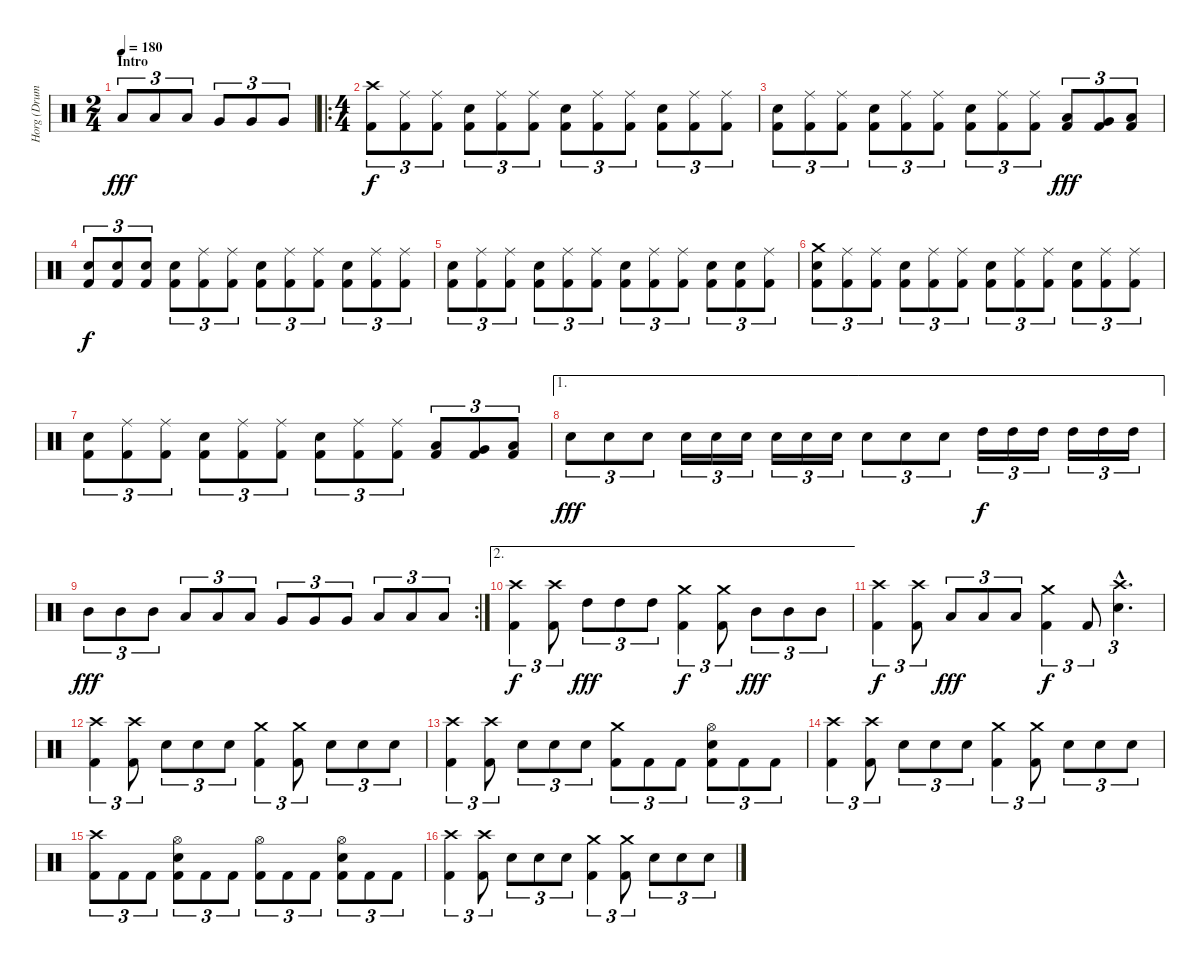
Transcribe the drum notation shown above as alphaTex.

\track ("Horg (Drums)" "Horg (Drum") {instrument percussion}
\staff {score}
\articulation defaults
\ts (2 4)
\section ("" "Intro")
\tempo 180
\clef neutral
\ks c "Low Tom (hit)".8{tu (3 2) dy fff} "Low Tom (hit)".8{tu (3 2)} "Low Tom (hit)".8{tu (3 2)} "Very Low Tom (hit)".8{tu (3 2)} "Very Low Tom (hit)".8{tu (3 2)} "Very Low Tom (hit)".8{tu (3 2)}
|
\ro
\ts (4 4)
("Crash high (hit)" "Kick (hit) 2").8{tu (3 2) dy f} ("Ride (middle)" "Kick (hit) 2").8{tu (3 2)} ("Ride (middle)" "Kick (hit) 2").8{tu (3 2)} ("Electric Snare (hit)" "Kick (hit) 2").8{tu (3 2)} ("Ride (middle)" "Kick (hit) 2").8{tu (3 2)} ("Ride (middle)" "Kick (hit) 2").8{tu (3 2)} ("Electric Snare (hit)" "Kick (hit) 2").8{tu (3 2)} ("Ride (middle)" "Kick (hit) 2").8{tu (3 2)} ("Ride (middle)" "Kick (hit) 2").8{tu (3 2)} ("Electric Snare (hit)" "Kick (hit) 2").8{tu (3 2)} ("Ride (middle)" "Kick (hit) 2").8{tu (3 2)} ("Ride (middle)" "Kick (hit) 2").8{tu (3 2)} |
("Electric Snare (hit)" "Kick (hit) 2").8{tu (3 2)} ("Ride (middle)" "Kick (hit) 2").8{tu (3 2)} ("Ride (middle)" "Kick (hit) 2").8{tu (3 2)} ("Electric Snare (hit)" "Kick (hit) 2").8{tu (3 2)} ("Ride (middle)" "Kick (hit) 2").8{tu (3 2)} ("Ride (middle)" "Kick (hit) 2").8{tu (3 2)} ("Electric Snare (hit)" "Kick (hit) 2").8{tu (3 2)} ("Ride (middle)" "Kick (hit) 2").8{tu (3 2)} ("Ride (middle)" "Kick (hit) 2").8{tu (3 2)} ("Low Tom (hit)" "Kick (hit) 2").8{tu (3 2) dy fff} ("Very Low Tom (hit)" "Kick (hit) 2").8{tu (3 2)} ("Low Floor Tom (hit)" "Kick (hit) 2").8{tu (3 2)} |
("Electric Snare (hit)" "Kick (hit) 2").8{tu (3 2) dy f} ("Electric Snare (hit)" "Kick (hit) 2").8{tu (3 2)} ("Electric Snare (hit)" "Kick (hit) 2").8{tu (3 2)} ("Electric Snare (hit)" "Kick (hit) 2").8{tu (3 2)} ("Ride (middle)" "Kick (hit) 2").8{tu (3 2)} ("Ride (middle)" "Kick (hit) 2").8{tu (3 2)} ("Electric Snare (hit)" "Kick (hit) 2").8{tu (3 2)} ("Ride (middle)" "Kick (hit) 2").8{tu (3 2)} ("Ride (middle)" "Kick (hit) 2").8{tu (3 2)} ("Electric Snare (hit)" "Kick (hit) 2").8{tu (3 2)} ("Ride (middle)" "Kick (hit) 2").8{tu (3 2)} ("Ride (middle)" "Kick (hit) 2").8{tu (3 2)} |
("Electric Snare (hit)" "Kick (hit) 2").8{tu (3 2)} ("Ride (middle)" "Kick (hit) 2").8{tu (3 2)} ("Ride (middle)" "Kick (hit) 2").8{tu (3 2)} ("Electric Snare (hit)" "Kick (hit) 2").8{tu (3 2)} ("Ride (middle)" "Kick (hit) 2").8{tu (3 2)} ("Ride (middle)" "Kick (hit) 2").8{tu (3 2)} ("Electric Snare (hit)" "Kick (hit) 2").8{tu (3 2)} ("Ride (middle)" "Kick (hit) 2").8{tu (3 2)} ("Ride (middle)" "Kick (hit) 2").8{tu (3 2)} ("Electric Snare (hit)" "Kick (hit) 2").8{tu (3 2)} ("Electric Snare (hit)" "Kick (hit) 2").8{tu (3 2)} ("Ride (middle)" "Kick (hit) 2").8{tu (3 2)} |
("Crash medium (hit)" "Electric Snare (hit)" "Kick (hit) 2").8{tu (3 2)} ("Ride (middle)" "Kick (hit) 2").8{tu (3 2)} ("Ride (middle)" "Kick (hit) 2").8{tu (3 2)} ("Electric Snare (hit)" "Kick (hit) 2").8{tu (3 2)} ("Ride (middle)" "Kick (hit) 2").8{tu (3 2)} ("Ride (middle)" "Kick (hit) 2").8{tu (3 2)} ("Electric Snare (hit)" "Kick (hit) 2").8{tu (3 2)} ("Ride (middle)" "Kick (hit) 2").8{tu (3 2)} ("Ride (middle)" "Kick (hit) 2").8{tu (3 2)} ("Electric Snare (hit)" "Kick (hit) 2").8{tu (3 2)} ("Ride (middle)" "Kick (hit) 2").8{tu (3 2)} ("Ride (middle)" "Kick (hit) 2").8{tu (3 2)} |
("Electric Snare (hit)" "Kick (hit) 2").8{tu (3 2)} ("Ride (middle)" "Kick (hit) 2").8{tu (3 2)} ("Ride (middle)" "Kick (hit) 2").8{tu (3 2)} ("Electric Snare (hit)" "Kick (hit) 2").8{tu (3 2)} ("Ride (middle)" "Kick (hit) 2").8{tu (3 2)} ("Ride (middle)" "Kick (hit) 2").8{tu (3 2)} ("Electric Snare (hit)" "Kick (hit) 2").8{tu (3 2)} ("Ride (middle)" "Kick (hit) 2").8{tu (3 2)} ("Ride (middle)" "Kick (hit) 2").8{tu (3 2)} ("Low Tom (hit)" "Kick (hit) 2").8{tu (3 2)} ("Very Low Tom (hit)" "Kick (hit) 2").8{tu (3 2)} ("Low Floor Tom (hit)" "Kick (hit) 2").8{tu (3 2)} |
\ae 1 "Electric Snare (hit)".8{tu (3 2) dy fff} "Electric Snare (hit)".8{tu (3 2)} "Electric Snare (hit)".8{tu (3 2)} "Electric Snare (hit)".16{tu (3 2)} "Electric Snare (hit)".16{tu (3 2)} "Electric Snare (hit)".16{tu (3 2)} "Electric Snare (hit)".16{tu (3 2)} "Electric Snare (hit)".16{tu (3 2)} "Electric Snare (hit)".16{tu (3 2)} "Electric Snare (hit)".8{tu (3 2)} "Electric Snare (hit)".8{tu (3 2)} "Electric Snare (hit)".8{tu (3 2)} "High Tom (hit)".16{tu (3 2) dy f} "High Tom (hit)".16{tu (3 2)} "High Tom (hit)".16{tu (3 2)} "High Tom (hit)".16{tu (3 2)} "High Tom (hit)".16{tu (3 2)} "High Tom (hit)".16{tu (3 2)}
|
\rc 2 "Mid Tom (hit)".8{tu (3 2) dy fff} "Mid Tom (hit)".8{tu (3 2)} "Mid Tom (hit)".8{tu (3 2)} "Low Tom (hit)".8{tu (3 2)} "Low Tom (hit)".8{tu (3 2)} "Low Tom (hit)".8{tu (3 2)} "Very Low Tom (hit)".8{tu (3 2)} "Very Low Tom (hit)".8{tu (3 2)} "Very Low Tom (hit)".8{tu (3 2)} "Low Floor Tom (hit)".8{tu (3 2)} "Low Floor Tom (hit)".8{tu (3 2)} "Low Floor Tom (hit)".8{tu (3 2)}
|
\ae 2
("Crash high (hit)" "Kick (hit) 2").4{tu (3 2) dy f} ("Crash high (hit)" "Kick (hit) 2").8{tu (3 2)} "High Tom (hit)".8{tu (3 2) dy fff} "High Tom (hit)".8{tu (3 2)} "High Tom (hit)".8{tu (3 2)} ("Crash medium (hit)" "Kick (hit) 2").4{tu (3 2) dy f} ("Crash medium (hit)" "Kick (hit) 2").8{tu (3 2)} "Mid Tom (hit)".8{tu (3 2) dy fff} "Mid Tom (hit)".8{tu (3 2)} "Mid Tom (hit)".8{tu (3 2)} |
("Crash high (hit)" "Kick (hit) 2").4{tu (3 2) dy f} ("Crash high (hit)" "Kick (hit) 2").8{tu (3 2)} "Low Tom (hit)".8{tu (3 2) dy fff} "Low Tom (hit)".8{tu (3 2)} "Low Tom (hit)".8{tu (3 2)} ("Crash medium (hit)" "Kick (hit) 2").4{tu (3 2) dy f} "Kick (hit) 2".8{tu (3 2)} ("Crash high (hit)"{hac} "Electric Snare (hit)"{hac}).4{d tu (3 2)} |
("Crash high (hit)" "Kick (hit) 2").4{tu (3 2)} ("Crash high (hit)" "Kick (hit) 2").8{tu (3 2)} "Electric Snare (hit)".8{tu (3 2)} "Electric Snare (hit)".8{tu (3 2)} "Electric Snare (hit)".8{tu (3 2)} ("Crash medium (hit)" "Kick (hit) 2").4{tu (3 2)} ("Crash medium (hit)" "Kick (hit) 2").8{tu (3 2)} "Electric Snare (hit)".8{tu (3 2)} "Electric Snare (hit)".8{tu (3 2)} "Electric Snare (hit)".8{tu (3 2)} |
("Crash high (hit)" "Kick (hit) 2").4{tu (3 2)} ("Crash high (hit)" "Kick (hit) 2").8{tu (3 2)} "Electric Snare (hit)".8{tu (3 2)} "Electric Snare (hit)".8{tu (3 2)} "Electric Snare (hit)".8{tu (3 2)} ("Crash medium (hit)" "Kick (hit) 2").8{tu (3 2)} "Kick (hit) 2".8{tu (3 2)} "Kick (hit) 2".8{tu (3 2)} ("Hi-Hat (open)" "Electric Snare (hit)" "Kick (hit) 2").8{tu (3 2)} "Kick (hit) 2".8{tu (3 2)} "Kick (hit) 2".8{tu (3 2)} |
("Crash high (hit)" "Kick (hit) 2").4{tu (3 2)} ("Crash high (hit)" "Kick (hit) 2").8{tu (3 2)} "Electric Snare (hit)".8{tu (3 2)} "Electric Snare (hit)".8{tu (3 2)} "Electric Snare (hit)".8{tu (3 2)} ("Crash medium (hit)" "Kick (hit) 2").4{tu (3 2)} ("Crash medium (hit)" "Kick (hit) 2").8{tu (3 2)} "Electric Snare (hit)".8{tu (3 2)} "Electric Snare (hit)".8{tu (3 2)} "Electric Snare (hit)".8{tu (3 2)} |
("Crash high (hit)" "Kick (hit) 2").8{tu (3 2)} "Kick (hit) 2".8{tu (3 2)} "Kick (hit) 2".8{tu (3 2)} ("Hi-Hat (open)" "Electric Snare (hit)" "Kick (hit) 2").8{tu (3 2)} "Kick (hit) 2".8{tu (3 2)} "Kick (hit) 2".8{tu (3 2)} ("Hi-Hat (open)" "Kick (hit) 2").8{tu (3 2)} "Kick (hit) 2".8{tu (3 2)} "Kick (hit) 2".8{tu (3 2)} ("Hi-Hat (open)" "Electric Snare (hit)" "Kick (hit) 2").8{tu (3 2)} "Kick (hit) 2".8{tu (3 2)} "Kick (hit) 2".8{tu (3 2)} |
("Crash high (hit)" "Kick (hit) 2").4{tu (3 2)} ("Crash high (hit)" "Kick (hit) 2").8{tu (3 2)} "Electric Snare (hit)".8{tu (3 2)} "Electric Snare (hit)".8{tu (3 2)} "Electric Snare (hit)".8{tu (3 2)} ("Crash medium (hit)" "Kick (hit) 2").4{tu (3 2)} ("Crash medium (hit)" "Kick (hit) 2").8{tu (3 2)} "Electric Snare (hit)".8{tu (3 2)} "Electric Snare (hit)".8{tu (3 2)} "Electric Snare (hit)".8{tu (3 2)}
